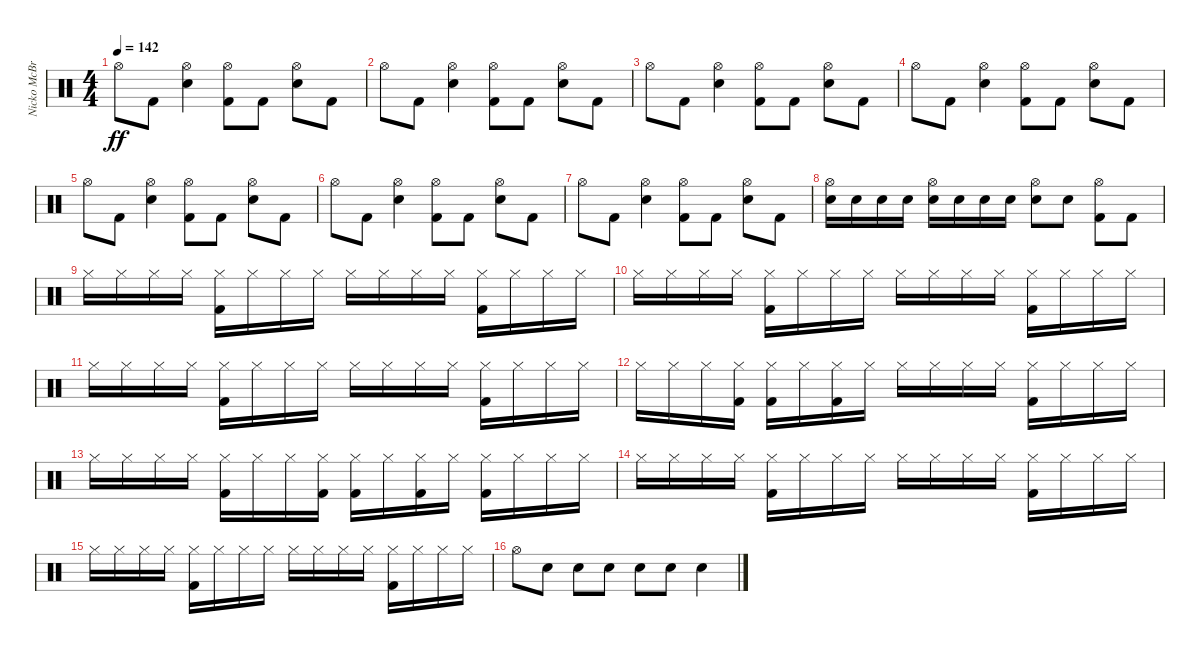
\track ("Nicko McBrain" "Nicko McBr") {instrument percussion}
\staff {score}
\articulation defaults
\ts (4 4)
\tempo 142
\clef neutral
\ks c "Hi-Hat (open)".8{dy ff} "Kick (hit) 2".8
("Snare (hit) 2" "Hi-Hat (open)").4 ("Kick (hit) 2" "Hi-Hat (open)").8 "Kick (hit) 2".8 ("Snare (hit) 2" "Hi-Hat (open)").8 "Kick (hit) 2".8 |
"Hi-Hat (open)".8 "Kick (hit) 2".8 ("Snare (hit) 2" "Hi-Hat (open)").4 ("Kick (hit) 2" "Hi-Hat (open)").8 "Kick (hit) 2".8 ("Snare (hit) 2" "Hi-Hat (open)").8 "Kick (hit) 2".8 |
"Hi-Hat (open)".8 "Kick (hit) 2".8 ("Snare (hit) 2" "Hi-Hat (open)").4 ("Kick (hit) 2" "Hi-Hat (open)").8 "Kick (hit) 2".8 ("Snare (hit) 2" "Hi-Hat (open)").8 "Kick (hit) 2".8 |
"Hi-Hat (open)".8 "Kick (hit) 2".8 ("Snare (hit) 2" "Hi-Hat (open)").4 ("Kick (hit) 2" "Hi-Hat (open)").8 "Kick (hit) 2".8 ("Snare (hit) 2" "Hi-Hat (open)").8 "Kick (hit) 2".8 |
"Hi-Hat (open)".8 "Kick (hit) 2".8 ("Snare (hit) 2" "Hi-Hat (open)").4 ("Kick (hit) 2" "Hi-Hat (open)").8 "Kick (hit) 2".8 ("Snare (hit) 2" "Hi-Hat (open)").8 "Kick (hit) 2".8 |
"Hi-Hat (open)".8 "Kick (hit) 2".8 ("Snare (hit) 2" "Hi-Hat (open)").4 ("Kick (hit) 2" "Hi-Hat (open)").8 "Kick (hit) 2".8 ("Snare (hit) 2" "Hi-Hat (open)").8 "Kick (hit) 2".8 |
"Hi-Hat (open)".8 "Kick (hit) 2".8 ("Snare (hit) 2" "Hi-Hat (open)").4 ("Kick (hit) 2" "Hi-Hat (open)").8 "Kick (hit) 2".8 ("Snare (hit) 2" "Hi-Hat (open)").8 "Kick (hit) 2".8 |
("Snare (hit) 2" "Hi-Hat (open)").16 "Snare (hit) 2".16 "Snare (hit) 2".16 "Snare (hit) 2".16 ("Snare (hit) 2" "Hi-Hat (open)").16 "Snare (hit) 2".16 "Snare (hit) 2".16 "Snare (hit) 2".16 ("Snare (hit) 2" "Hi-Hat (open)").8 "Snare (hit) 2".8 ("Kick (hit) 2" "Hi-Hat (open)").8 "Kick (hit) 2".8 |
"Hi-Hat (closed)".16 "Hi-Hat (closed)".16 "Hi-Hat (closed)".16 "Hi-Hat (closed)".16 ("Kick (hit) 2" "Hi-Hat (closed)").16 "Hi-Hat (closed)".16 "Hi-Hat (closed)".16 "Hi-Hat (closed)".16 "Hi-Hat (closed)".16 "Hi-Hat (closed)".16 "Hi-Hat (closed)".16 "Hi-Hat (closed)".16 ("Kick (hit) 2" "Hi-Hat (closed)").16 "Hi-Hat (closed)".16 "Hi-Hat (closed)".16 "Hi-Hat (closed)".16 |
"Hi-Hat (closed)".16 "Hi-Hat (closed)".16 "Hi-Hat (closed)".16 "Hi-Hat (closed)".16 ("Kick (hit) 2" "Hi-Hat (closed)").16 "Hi-Hat (closed)".16 "Hi-Hat (closed)".16 "Hi-Hat (closed)".16 "Hi-Hat (closed)".16 "Hi-Hat (closed)".16 "Hi-Hat (closed)".16 "Hi-Hat (closed)".16 ("Kick (hit) 2" "Hi-Hat (closed)").16 "Hi-Hat (closed)".16 "Hi-Hat (closed)".16 "Hi-Hat (closed)".16 |
"Hi-Hat (closed)".16 "Hi-Hat (closed)".16 "Hi-Hat (closed)".16 "Hi-Hat (closed)".16 ("Kick (hit) 2" "Hi-Hat (closed)").16 "Hi-Hat (closed)".16 "Hi-Hat (closed)".16 "Hi-Hat (closed)".16 "Hi-Hat (closed)".16 "Hi-Hat (closed)".16 "Hi-Hat (closed)".16 "Hi-Hat (closed)".16 ("Kick (hit) 2" "Hi-Hat (closed)").16 "Hi-Hat (closed)".16 "Hi-Hat (closed)".16 "Hi-Hat (closed)".16 |
"Hi-Hat (closed)".16 "Hi-Hat (closed)".16 "Hi-Hat (closed)".16 ("Kick (hit) 2" "Hi-Hat (closed)").16 ("Kick (hit) 2" "Hi-Hat (closed)").16 "Hi-Hat (closed)".16 ("Kick (hit) 2" "Hi-Hat (closed)").16 "Hi-Hat (closed)".16 "Hi-Hat (closed)".16 "Hi-Hat (closed)".16 "Hi-Hat (closed)".16 "Hi-Hat (closed)".16 ("Kick (hit) 2" "Hi-Hat (closed)").16 "Hi-Hat (closed)".16 "Hi-Hat (closed)".16 "Hi-Hat (closed)".16 |
"Hi-Hat (closed)".16 "Hi-Hat (closed)".16 "Hi-Hat (closed)".16 "Hi-Hat (closed)".16 ("Kick (hit) 2" "Hi-Hat (closed)").16 "Hi-Hat (closed)".16 "Hi-Hat (closed)".16 ("Kick (hit) 2" "Hi-Hat (closed)").16 ("Kick (hit) 2" "Hi-Hat (closed)").16 "Hi-Hat (closed)".16 ("Kick (hit) 2" "Hi-Hat (closed)").16 "Hi-Hat (closed)".16 ("Kick (hit) 2" "Hi-Hat (closed)").16 "Hi-Hat (closed)".16 "Hi-Hat (closed)".16 "Hi-Hat (closed)".16 |
"Hi-Hat (closed)".16 "Hi-Hat (closed)".16 "Hi-Hat (closed)".16 "Hi-Hat (closed)".16 ("Kick (hit) 2" "Hi-Hat (closed)").16 "Hi-Hat (closed)".16 "Hi-Hat (closed)".16 "Hi-Hat (closed)".16 "Hi-Hat (closed)".16 "Hi-Hat (closed)".16 "Hi-Hat (closed)".16 "Hi-Hat (closed)".16 ("Kick (hit) 2" "Hi-Hat (closed)").16 "Hi-Hat (closed)".16 "Hi-Hat (closed)".16 "Hi-Hat (closed)".16 |
"Hi-Hat (closed)".16 "Hi-Hat (closed)".16 "Hi-Hat (closed)".16 "Hi-Hat (closed)".16 ("Kick (hit) 2" "Hi-Hat (closed)").16 "Hi-Hat (closed)".16 "Hi-Hat (closed)".16 "Hi-Hat (closed)".16 "Hi-Hat (closed)".16 "Hi-Hat (closed)".16 "Hi-Hat (closed)".16 "Hi-Hat (closed)".16 ("Kick (hit) 2" "Hi-Hat (closed)").16 "Hi-Hat (closed)".16 "Hi-Hat (closed)".16 "Hi-Hat (closed)".16 |
"Hi-Hat (open)".8 "Snare (hit) 2".8{volume 0} "Snare (hit) 2".8{volume 4} "Snare (hit) 2".8{volume 8} "Snare (hit) 2".8{volume 12} "Snare (hit) 2".8{volume 16} "Snare (hit) 2".4
